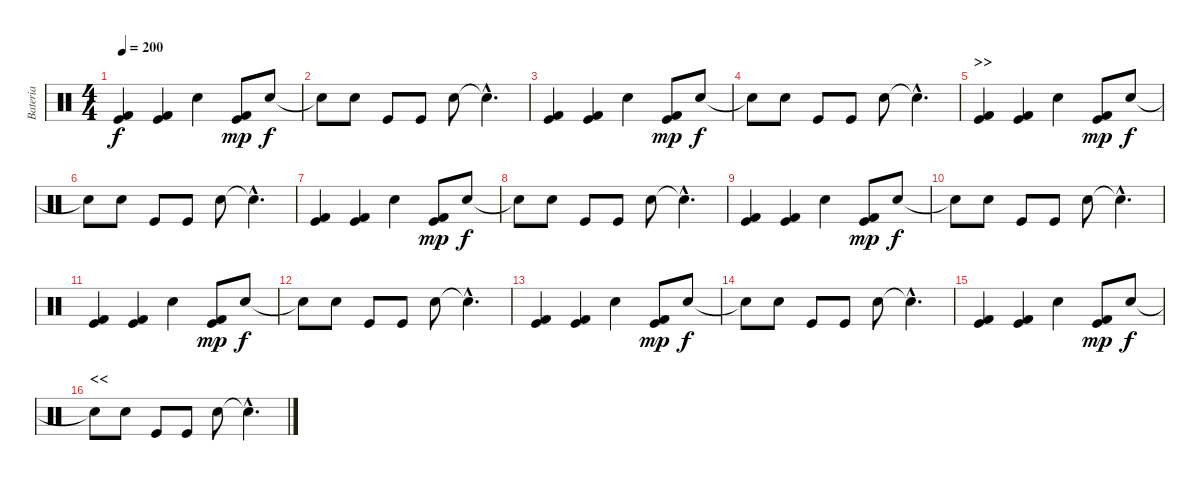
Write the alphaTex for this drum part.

\track ("Bateria" "Bateria") {instrument percussion}
\staff {score}
\articulation defaults
\ts (4 4)
\tempo 200
\clef neutral
\ks c
("Kick (hit) 2" "Kick (hit)").4{dy f} ("Kick (hit) 2" "Kick (hit)").4 "Electric Snare (hit)".4 ("Kick (hit)" "Kick (hit) 2").8{dy mp} "Electric Snare (hit)".8{dy f} |
"Snare (hit)"{t}.8 "Electric Snare (hit)".8 "Kick (hit)".8 "Kick (hit)".8 "Electric Snare (hit)".8 "Snare (hit)"{hac t}.4{d} |
("Kick (hit) 2" "Kick (hit)").4 ("Kick (hit) 2" "Kick (hit)").4 "Electric Snare (hit)".4 ("Kick (hit)" "Kick (hit) 2").8{dy mp} "Electric Snare (hit)".8{dy f} |
"Snare (hit)"{t}.8 "Electric Snare (hit)".8 "Kick (hit)".8 "Kick (hit)".8 "Electric Snare (hit)".8 "Snare (hit)"{hac t}.4{d} |
\section ("" ">>")
("Kick (hit) 2" "Kick (hit)").4 ("Kick (hit) 2" "Kick (hit)").4 "Electric Snare (hit)".4 ("Kick (hit)" "Kick (hit) 2").8{dy mp} "Electric Snare (hit)".8{dy f} |
"Snare (hit)"{t}.8 "Electric Snare (hit)".8 "Kick (hit)".8 "Kick (hit)".8 "Electric Snare (hit)".8 "Snare (hit)"{hac t}.4{d} |
("Kick (hit) 2" "Kick (hit)").4 ("Kick (hit) 2" "Kick (hit)").4 "Electric Snare (hit)".4 ("Kick (hit)" "Kick (hit) 2").8{dy mp} "Electric Snare (hit)".8{dy f} |
"Snare (hit)"{t}.8 "Electric Snare (hit)".8 "Kick (hit)".8 "Kick (hit)".8 "Electric Snare (hit)".8 "Snare (hit)"{hac t}.4{d} |
("Kick (hit) 2" "Kick (hit)").4 ("Kick (hit) 2" "Kick (hit)").4 "Electric Snare (hit)".4 ("Kick (hit)" "Kick (hit) 2").8{dy mp} "Electric Snare (hit)".8{dy f} |
"Snare (hit)"{t}.8 "Electric Snare (hit)".8 "Kick (hit)".8 "Kick (hit)".8 "Electric Snare (hit)".8 "Snare (hit)"{hac t}.4{d} |
("Kick (hit) 2" "Kick (hit)").4 ("Kick (hit) 2" "Kick (hit)").4 "Electric Snare (hit)".4 ("Kick (hit)" "Kick (hit) 2").8{dy mp} "Electric Snare (hit)".8{dy f} |
"Snare (hit)"{t}.8 "Electric Snare (hit)".8 "Kick (hit)".8 "Kick (hit)".8 "Electric Snare (hit)".8 "Snare (hit)"{hac t}.4{d} |
("Kick (hit) 2" "Kick (hit)").4 ("Kick (hit) 2" "Kick (hit)").4 "Electric Snare (hit)".4 ("Kick (hit)" "Kick (hit) 2").8{dy mp} "Electric Snare (hit)".8{dy f} |
"Snare (hit)"{t}.8 "Electric Snare (hit)".8 "Kick (hit)".8 "Kick (hit)".8 "Electric Snare (hit)".8 "Snare (hit)"{hac t}.4{d} |
("Kick (hit) 2" "Kick (hit)").4 ("Kick (hit) 2" "Kick (hit)").4 "Electric Snare (hit)".4 ("Kick (hit)" "Kick (hit) 2").8{dy mp} "Electric Snare (hit)".8{dy f} |
\section ("" "<<")
"Snare (hit)"{t}.8 "Electric Snare (hit)".8 "Kick (hit)".8 "Kick (hit)".8 "Electric Snare (hit)".8 "Snare (hit)"{hac t}.4{d}
